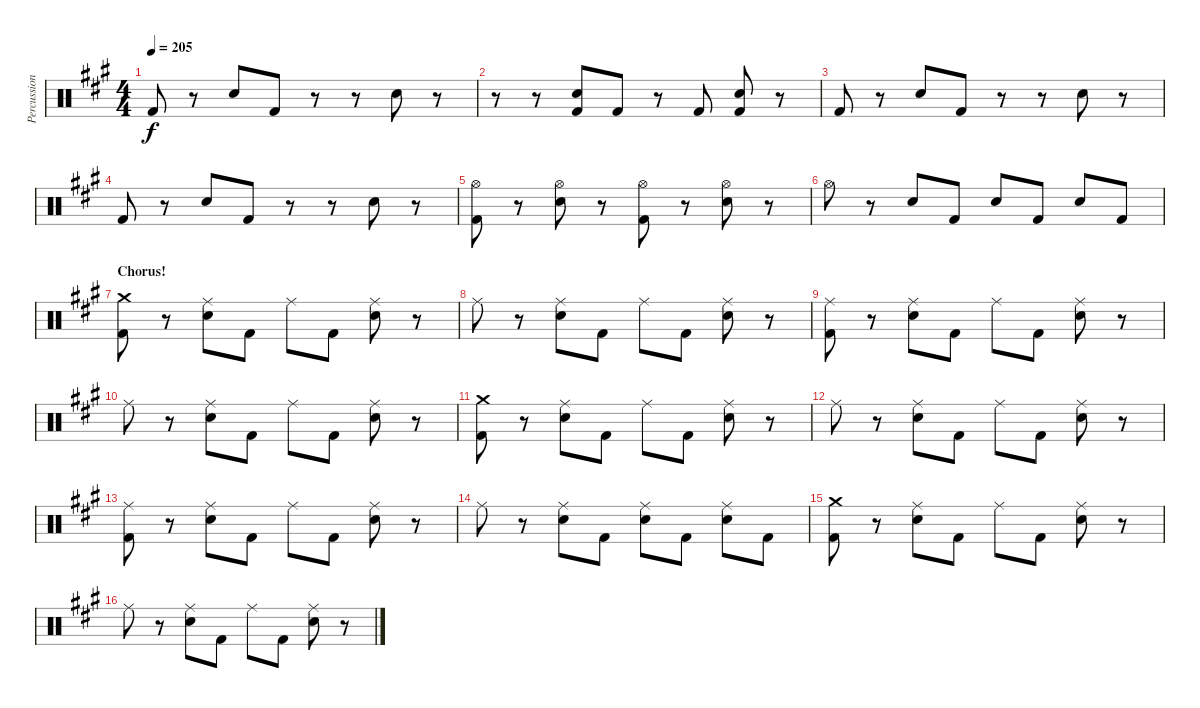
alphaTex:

\track ("Percussion" "Percussion") {instrument percussion}
\staff {score}
\articulation defaults
\ts (4 4)
\tempo 205
\clef neutral
\ks a "Kick (hit) 2".8{dy f}
r.8 "Snare (hit) 2".8 "Kick (hit) 2".8 r.8 r.8 "Snare (hit) 2".8 r.8 |
r.8 r.8 ("Snare (hit) 2" "Kick (hit) 2").8 "Kick (hit) 2".8 r.8 "Kick (hit) 2".8 ("Snare (hit) 2" "Kick (hit) 2").8 r.8 |
"Kick (hit) 2".8 r.8 "Snare (hit) 2".8 "Kick (hit) 2".8 r.8 r.8 "Snare (hit) 2".8 r.8 |
"Kick (hit) 2".8 r.8 "Snare (hit) 2".8 "Kick (hit) 2".8 r.8 r.8 "Snare (hit) 2".8 r.8 |
("Hi-Hat (open)" "Kick (hit) 2").8 r.8 ("Hi-Hat (open)" "Snare (hit) 2").8 r.8 ("Hi-Hat (open)" "Kick (hit) 2").8 r.8 ("Hi-Hat (open)" "Snare (hit) 2").8 r.8 |
"Hi-Hat (open)".8 r.8 "Snare (hit) 2".8 "Kick (hit) 2".8 "Snare (hit) 2".8 "Kick (hit) 2".8 "Snare (hit) 2".8 "Kick (hit) 2".8 |
\section ("" "Chorus!")
("Crash medium (hit)" "Kick (hit) 2").8 r.8 ("Ride (middle)" "Snare (hit) 2").8 "Kick (hit) 2".8 "Ride (middle)".8 "Kick (hit) 2".8 ("Ride (middle)" "Snare (hit) 2").8 r.8 |
"Ride (middle)".8 r.8 ("Ride (middle)" "Snare (hit) 2").8 "Kick (hit) 2".8 "Ride (middle)".8 "Kick (hit) 2".8 ("Ride (middle)" "Snare (hit) 2").8 r.8 |
("Ride (middle)" "Kick (hit) 2").8 r.8 ("Ride (middle)" "Snare (hit) 2").8 "Kick (hit) 2".8 "Ride (middle)".8 "Kick (hit) 2".8 ("Ride (middle)" "Snare (hit) 2").8 r.8 |
"Ride (middle)".8 r.8 ("Ride (middle)" "Snare (hit) 2").8 "Kick (hit) 2".8 "Ride (middle)".8 "Kick (hit) 2".8 ("Ride (middle)" "Snare (hit) 2").8 r.8 |
("Crash medium (hit)" "Kick (hit) 2").8 r.8 ("Ride (middle)" "Snare (hit) 2").8 "Kick (hit) 2".8 "Ride (middle)".8 "Kick (hit) 2".8 ("Ride (middle)" "Snare (hit) 2").8 r.8 |
"Ride (middle)".8 r.8 ("Ride (middle)" "Snare (hit) 2").8 "Kick (hit) 2".8 "Ride (middle)".8 "Kick (hit) 2".8 ("Ride (middle)" "Snare (hit) 2").8 r.8 |
("Ride (middle)" "Kick (hit) 2").8 r.8 ("Ride (middle)" "Snare (hit) 2").8 "Kick (hit) 2".8 "Ride (middle)".8 "Kick (hit) 2".8 ("Ride (middle)" "Snare (hit) 2").8 r.8 |
"Ride (middle)".8 r.8 ("Ride (middle)" "Snare (hit) 2").8 "Kick (hit) 2".8 ("Ride (middle)" "Snare (hit) 2").8 "Kick (hit) 2".8 ("Ride (middle)" "Snare (hit) 2").8 "Kick (hit) 2".8 |
("Crash medium (hit)" "Kick (hit) 2").8 r.8 ("Ride (middle)" "Snare (hit) 2").8 "Kick (hit) 2".8 "Ride (middle)".8 "Kick (hit) 2".8 ("Ride (middle)" "Snare (hit) 2").8 r.8 |
"Ride (middle)".8 r.8 ("Ride (middle)" "Snare (hit) 2").8 "Kick (hit) 2".8 "Ride (middle)".8 "Kick (hit) 2".8 ("Ride (middle)" "Snare (hit) 2").8 r.8
